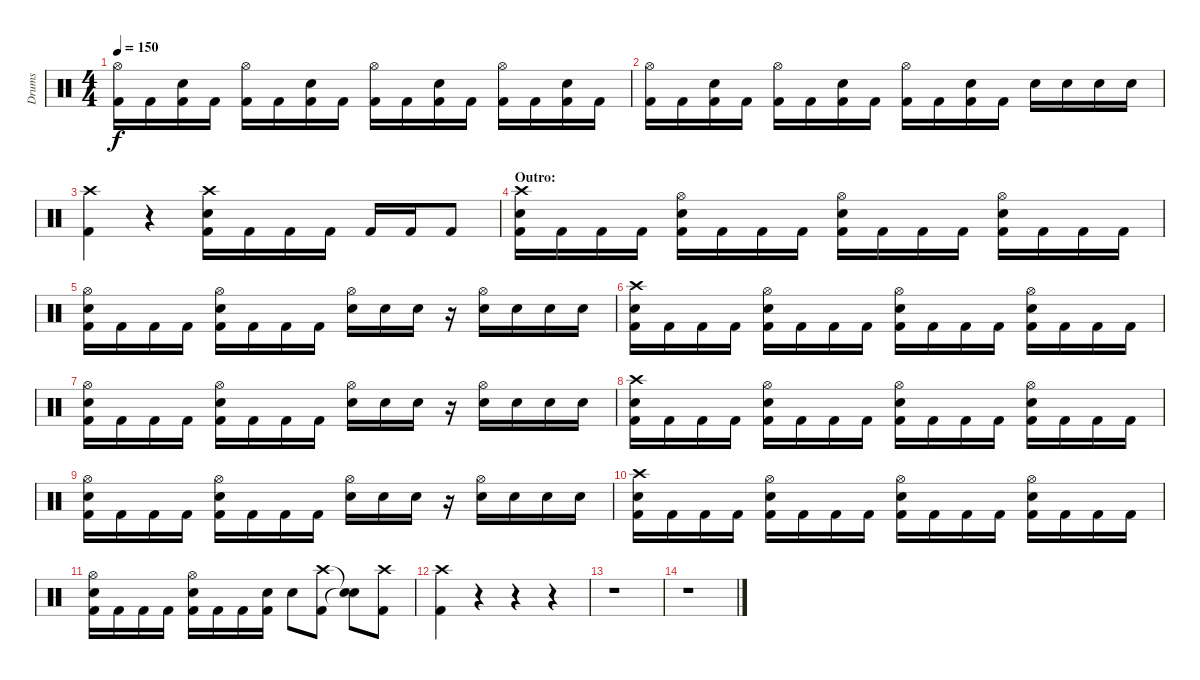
\track ("Drums" "Drums") {instrument percussion}
\staff {score}
\articulation defaults
\ts (4 4)
\tempo 150
\clef neutral
\ks c
("Hi-Hat (open)" "Kick (hit) 2").16{dy f} "Kick (hit) 2".16 ("Electric Snare (hit)" "Kick (hit) 2").16 "Kick (hit) 2".16 ("Hi-Hat (open)" "Kick (hit) 2").16 "Kick (hit) 2".16 ("Electric Snare (hit)" "Kick (hit) 2").16 "Kick (hit) 2".16 ("Hi-Hat (open)" "Kick (hit) 2").16 "Kick (hit) 2".16 ("Electric Snare (hit)" "Kick (hit) 2").16 "Kick (hit) 2".16 ("Hi-Hat (open)" "Kick (hit) 2").16 "Kick (hit) 2".16 ("Electric Snare (hit)" "Kick (hit) 2").16 "Kick (hit) 2".16 |
("Hi-Hat (open)" "Kick (hit) 2").16 "Kick (hit) 2".16 ("Electric Snare (hit)" "Kick (hit) 2").16 "Kick (hit) 2".16 ("Hi-Hat (open)" "Kick (hit) 2").16 "Kick (hit) 2".16 ("Electric Snare (hit)" "Kick (hit) 2").16 "Kick (hit) 2".16 ("Hi-Hat (open)" "Kick (hit) 2").16 "Kick (hit) 2".16 ("Electric Snare (hit)" "Kick (hit) 2").16 "Kick (hit) 2".16 "Electric Snare (hit)".16 "Electric Snare (hit)".16 "Electric Snare (hit)".16 "Electric Snare (hit)".16 |
("Crash high (hit)" "Kick (hit) 2").4 r.4 ("Crash high (hit)" "Electric Snare (hit)" "Kick (hit) 2").16 "Kick (hit) 2".16 "Kick (hit) 2".16 "Kick (hit) 2".16 "Kick (hit) 2".16 "Kick (hit) 2".16 "Kick (hit) 2".8 |
\section ("" "Outro:")
("Crash high (hit)" "Electric Snare (hit)" "Kick (hit) 2").16 "Kick (hit) 2".16 "Kick (hit) 2".16 "Kick (hit) 2".16 ("Hi-Hat (open)" "Electric Snare (hit)" "Kick (hit) 2").16 "Kick (hit) 2".16 "Kick (hit) 2".16 "Kick (hit) 2".16 ("Hi-Hat (open)" "Electric Snare (hit)" "Kick (hit) 2").16 "Kick (hit) 2".16 "Kick (hit) 2".16 "Kick (hit) 2".16 ("Hi-Hat (open)" "Electric Snare (hit)" "Kick (hit) 2").16 "Kick (hit) 2".16 "Kick (hit) 2".16 "Kick (hit) 2".16 |
("Hi-Hat (open)" "Electric Snare (hit)" "Kick (hit) 2").16 "Kick (hit) 2".16 "Kick (hit) 2".16 "Kick (hit) 2".16 ("Hi-Hat (open)" "Electric Snare (hit)" "Kick (hit) 2").16 "Kick (hit) 2".16 "Kick (hit) 2".16 "Kick (hit) 2".16 ("Hi-Hat (open)" "Electric Snare (hit)").16 "Electric Snare (hit)".16 "Electric Snare (hit)".16 r.16 ("Hi-Hat (open)" "Electric Snare (hit)").16 "Electric Snare (hit)".16 "Electric Snare (hit)".16 "Electric Snare (hit)".16 |
("Crash high (hit)" "Electric Snare (hit)" "Kick (hit) 2").16 "Kick (hit) 2".16 "Kick (hit) 2".16 "Kick (hit) 2".16 ("Hi-Hat (open)" "Electric Snare (hit)" "Kick (hit) 2").16 "Kick (hit) 2".16 "Kick (hit) 2".16 "Kick (hit) 2".16 ("Hi-Hat (open)" "Electric Snare (hit)" "Kick (hit) 2").16 "Kick (hit) 2".16 "Kick (hit) 2".16 "Kick (hit) 2".16 ("Hi-Hat (open)" "Electric Snare (hit)" "Kick (hit) 2").16 "Kick (hit) 2".16 "Kick (hit) 2".16 "Kick (hit) 2".16 |
("Hi-Hat (open)" "Electric Snare (hit)" "Kick (hit) 2").16 "Kick (hit) 2".16 "Kick (hit) 2".16 "Kick (hit) 2".16 ("Hi-Hat (open)" "Electric Snare (hit)" "Kick (hit) 2").16 "Kick (hit) 2".16 "Kick (hit) 2".16 "Kick (hit) 2".16 ("Hi-Hat (open)" "Electric Snare (hit)").16 "Electric Snare (hit)".16 "Electric Snare (hit)".16 r.16 ("Hi-Hat (open)" "Electric Snare (hit)").16 "Electric Snare (hit)".16 "Electric Snare (hit)".16 "Electric Snare (hit)".16 |
("Crash high (hit)" "Electric Snare (hit)" "Kick (hit) 2").16 "Kick (hit) 2".16 "Kick (hit) 2".16 "Kick (hit) 2".16 ("Hi-Hat (open)" "Electric Snare (hit)" "Kick (hit) 2").16 "Kick (hit) 2".16 "Kick (hit) 2".16 "Kick (hit) 2".16 ("Hi-Hat (open)" "Electric Snare (hit)" "Kick (hit) 2").16 "Kick (hit) 2".16 "Kick (hit) 2".16 "Kick (hit) 2".16 ("Hi-Hat (open)" "Electric Snare (hit)" "Kick (hit) 2").16 "Kick (hit) 2".16 "Kick (hit) 2".16 "Kick (hit) 2".16 |
("Hi-Hat (open)" "Electric Snare (hit)" "Kick (hit) 2").16 "Kick (hit) 2".16 "Kick (hit) 2".16 "Kick (hit) 2".16 ("Hi-Hat (open)" "Electric Snare (hit)" "Kick (hit) 2").16 "Kick (hit) 2".16 "Kick (hit) 2".16 "Kick (hit) 2".16 ("Hi-Hat (open)" "Electric Snare (hit)").16 "Electric Snare (hit)".16 "Electric Snare (hit)".16 r.16 ("Hi-Hat (open)" "Electric Snare (hit)").16 "Electric Snare (hit)".16 "Electric Snare (hit)".16 "Electric Snare (hit)".16 |
("Crash high (hit)" "Electric Snare (hit)" "Kick (hit) 2").16 "Kick (hit) 2".16 "Kick (hit) 2".16 "Kick (hit) 2".16 ("Hi-Hat (open)" "Electric Snare (hit)" "Kick (hit) 2").16 "Kick (hit) 2".16 "Kick (hit) 2".16 "Kick (hit) 2".16 ("Hi-Hat (open)" "Electric Snare (hit)" "Kick (hit) 2").16 "Kick (hit) 2".16 "Kick (hit) 2".16 "Kick (hit) 2".16 ("Hi-Hat (open)" "Electric Snare (hit)" "Kick (hit) 2").16 "Kick (hit) 2".16 "Kick (hit) 2".16 "Kick (hit) 2".16 |
("Hi-Hat (open)" "Electric Snare (hit)" "Kick (hit) 2").16 "Kick (hit) 2".16 "Kick (hit) 2".16 "Kick (hit) 2".16 ("Hi-Hat (open)" "Electric Snare (hit)" "Kick (hit) 2").16 "Kick (hit) 2".16 "Kick (hit) 2".16 ("Electric Snare (hit)" "Kick (hit) 2").16 "Electric Snare (hit)".8 ("Crash high (hit)" "Kick (hit) 2").8 ("Snare (hit)"{t} "Snare (hit)"{t}).8 ("Crash high (hit)" "Kick (hit) 2").8 |
("Crash high (hit)" "Kick (hit) 2").4 r.4 r.4 r.4 |
r.1 |
r.1
